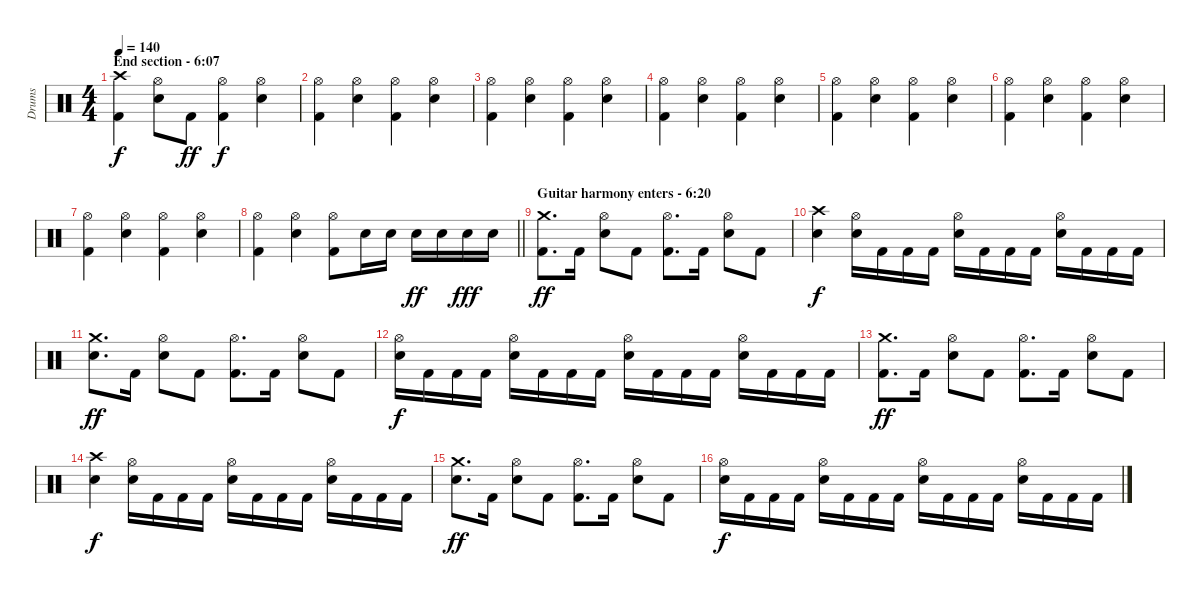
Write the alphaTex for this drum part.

\track ("Drums" "Drums") {instrument percussion}
\staff {score}
\articulation defaults
\ts (4 4)
\section ("" "End section - 6:07")
\tempo 140
\clef neutral
\ks c
("Crash high (hit)" "Kick (hit) 2").4{dy f} ("Hi-Hat (open)" "Electric Snare (hit)").8 "Kick (hit) 2".8{dy ff} ("Hi-Hat (open)" "Kick (hit) 2").4{dy f} ("Hi-Hat (open)" "Electric Snare (hit)").4 |
("Hi-Hat (open)" "Kick (hit) 2").4 ("Hi-Hat (open)" "Electric Snare (hit)").4 ("Hi-Hat (open)" "Kick (hit) 2").4 ("Hi-Hat (open)" "Electric Snare (hit)").4 |
("Hi-Hat (open)" "Kick (hit) 2").4 ("Hi-Hat (open)" "Electric Snare (hit)").4 ("Hi-Hat (open)" "Kick (hit) 2").4 ("Hi-Hat (open)" "Electric Snare (hit)").4 |
("Hi-Hat (open)" "Kick (hit) 2").4 ("Hi-Hat (open)" "Electric Snare (hit)").4 ("Hi-Hat (open)" "Kick (hit) 2").4 ("Hi-Hat (open)" "Electric Snare (hit)").4 |
("Hi-Hat (open)" "Kick (hit) 2").4 ("Hi-Hat (open)" "Electric Snare (hit)").4 ("Hi-Hat (open)" "Kick (hit) 2").4 ("Hi-Hat (open)" "Electric Snare (hit)").4 |
("Hi-Hat (open)" "Kick (hit) 2").4 ("Hi-Hat (open)" "Electric Snare (hit)").4 ("Hi-Hat (open)" "Kick (hit) 2").4 ("Hi-Hat (open)" "Electric Snare (hit)").4 |
("Hi-Hat (open)" "Kick (hit) 2").4 ("Hi-Hat (open)" "Electric Snare (hit)").4 ("Hi-Hat (open)" "Kick (hit) 2").4 ("Hi-Hat (open)" "Electric Snare (hit)").4 |
\barLineRight lightlight
("Hi-Hat (open)" "Kick (hit) 2").4 ("Hi-Hat (open)" "Electric Snare (hit)").4 ("Hi-Hat (open)" "Kick (hit) 2").8 "Electric Snare (hit)".16 "Electric Snare (hit)".16 "Electric Snare (hit)".16{dy ff} "Electric Snare (hit)".16 "Electric Snare (hit)".16{dy fff} "Electric Snare (hit)".16 |
\section ("" "Guitar harmony enters - 6:20")
("Crash medium (hit)" "Kick (hit) 2").8{d dy ff} "Kick (hit) 2".16 ("Hi-Hat (open)" "Electric Snare (hit)").8 "Kick (hit) 2".8 ("Hi-Hat (open)" "Kick (hit) 2").8{d} "Kick (hit) 2".16 ("Hi-Hat (open)" "Electric Snare (hit)").8 "Kick (hit) 2".8 |
("Crash high (hit)" "Electric Snare (hit)").4{dy f} ("Hi-Hat (open)" "Electric Snare (hit)").16 "Kick (hit) 2".16 "Kick (hit) 2".16 "Kick (hit) 2".16 ("Hi-Hat (open)" "Electric Snare (hit)").16 "Kick (hit) 2".16 "Kick (hit) 2".16 "Kick (hit) 2".16 ("Hi-Hat (open)" "Electric Snare (hit)").16 "Kick (hit) 2".16 "Kick (hit) 2".16 "Kick (hit) 2".16 |
("Crash medium (hit)" "Electric Snare (hit)").8{d dy ff} "Kick (hit) 2".16 ("Hi-Hat (open)" "Electric Snare (hit)").8 "Kick (hit) 2".8 ("Hi-Hat (open)" "Kick (hit) 2").8{d} "Kick (hit) 2".16 ("Hi-Hat (open)" "Electric Snare (hit)").8 "Kick (hit) 2".8 |
("Hi-Hat (open)" "Electric Snare (hit)").16{dy f} "Kick (hit) 2".16 "Kick (hit) 2".16 "Kick (hit) 2".16 ("Hi-Hat (open)" "Electric Snare (hit)").16 "Kick (hit) 2".16 "Kick (hit) 2".16 "Kick (hit) 2".16 ("Hi-Hat (open)" "Electric Snare (hit)").16 "Kick (hit) 2".16 "Kick (hit) 2".16 "Kick (hit) 2".16 ("Hi-Hat (open)" "Electric Snare (hit)").16 "Kick (hit) 2".16 "Kick (hit) 2".16 "Kick (hit) 2".16 |
("Crash medium (hit)" "Kick (hit) 2").8{d dy ff} "Kick (hit) 2".16 ("Hi-Hat (open)" "Electric Snare (hit)").8 "Kick (hit) 2".8 ("Hi-Hat (open)" "Kick (hit) 2").8{d} "Kick (hit) 2".16 ("Hi-Hat (open)" "Electric Snare (hit)").8 "Kick (hit) 2".8 |
("Crash high (hit)" "Electric Snare (hit)").4{dy f} ("Hi-Hat (open)" "Electric Snare (hit)").16 "Kick (hit) 2".16 "Kick (hit) 2".16 "Kick (hit) 2".16 ("Hi-Hat (open)" "Electric Snare (hit)").16 "Kick (hit) 2".16 "Kick (hit) 2".16 "Kick (hit) 2".16 ("Hi-Hat (open)" "Electric Snare (hit)").16 "Kick (hit) 2".16 "Kick (hit) 2".16 "Kick (hit) 2".16 |
("Crash medium (hit)" "Electric Snare (hit)").8{d dy ff} "Kick (hit) 2".16 ("Hi-Hat (open)" "Electric Snare (hit)").8 "Kick (hit) 2".8 ("Hi-Hat (open)" "Kick (hit) 2").8{d} "Kick (hit) 2".16 ("Hi-Hat (open)" "Electric Snare (hit)").8 "Kick (hit) 2".8 |
("Hi-Hat (open)" "Electric Snare (hit)").16{dy f} "Kick (hit) 2".16 "Kick (hit) 2".16 "Kick (hit) 2".16 ("Hi-Hat (open)" "Electric Snare (hit)").16 "Kick (hit) 2".16 "Kick (hit) 2".16 "Kick (hit) 2".16 ("Hi-Hat (open)" "Electric Snare (hit)").16 "Kick (hit) 2".16 "Kick (hit) 2".16 "Kick (hit) 2".16 ("Hi-Hat (open)" "Electric Snare (hit)").16 "Kick (hit) 2".16 "Kick (hit) 2".16 "Kick (hit) 2".16
